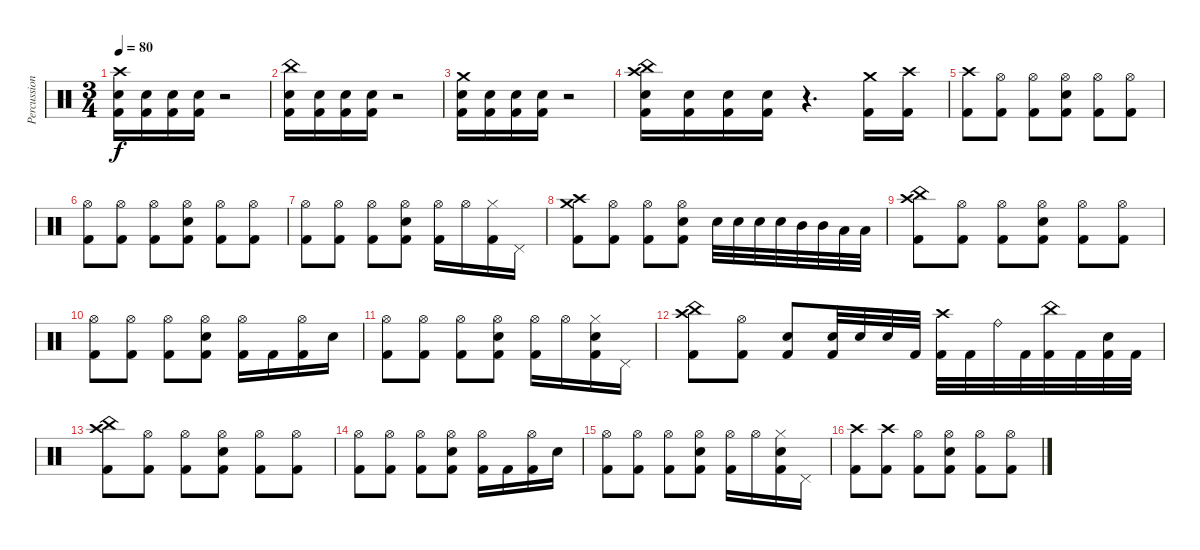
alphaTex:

\track ("Percussion" "Percussion") {instrument percussion}
\staff {score}
\articulation defaults
\ts (3 4)
\tempo 80
\clef neutral
\ks c
("Crash high (hit)" "Electric Snare (hit)" "Kick (hit) 2").16{dy f} ("Electric Snare (hit)" "Kick (hit) 2").16 ("Electric Snare (hit)" "Kick (hit) 2").16 ("Electric Snare (hit)" "Kick (hit) 2").16 r.2 |
("China (hit)" "Electric Snare (hit)" "Kick (hit) 2").16 ("Electric Snare (hit)" "Kick (hit) 2").16 ("Electric Snare (hit)" "Kick (hit) 2").16 ("Electric Snare (hit)" "Kick (hit) 2").16 r.2 |
("Crash medium (hit)" "Electric Snare (hit)" "Kick (hit) 2").16 ("Electric Snare (hit)" "Kick (hit) 2").16 ("Electric Snare (hit)" "Kick (hit) 2").16 ("Electric Snare (hit)" "Kick (hit) 2").16 r.2 |
("Crash high (hit)" "China (hit)" "Electric Snare (hit)" "Kick (hit) 2").16 ("Electric Snare (hit)" "Kick (hit) 2").16 ("Electric Snare (hit)" "Kick (hit) 2").16 ("Electric Snare (hit)" "Kick (hit) 2").16 r.4{d} ("Crash medium (hit)" "Kick (hit) 2").16 ("Crash high (hit)" "Kick (hit) 2").16 |
("Crash high (hit)" "Kick (hit) 2").8 ("Hi-Hat (open)" "Kick (hit) 2").8 ("Hi-Hat (open)" "Kick (hit) 2").8 ("Hi-Hat (open)" "Electric Snare (hit)" "Kick (hit) 2").8 ("Hi-Hat (open)" "Kick (hit) 2").8 ("Hi-Hat (open)" "Kick (hit) 2").8 |
("Hi-Hat (open)" "Kick (hit) 2").8 ("Hi-Hat (open)" "Kick (hit) 2").8 ("Hi-Hat (open)" "Kick (hit) 2").8 ("Hi-Hat (open)" "Electric Snare (hit)" "Kick (hit) 2").8 ("Hi-Hat (open)" "Kick (hit) 2").8 ("Hi-Hat (open)" "Kick (hit) 2").8 |
("Hi-Hat (open)" "Kick (hit) 2").8 ("Hi-Hat (open)" "Kick (hit) 2").8 ("Hi-Hat (open)" "Kick (hit) 2").8 ("Hi-Hat (open)" "Electric Snare (hit)" "Kick (hit) 2").8 ("Hi-Hat (open)" "Kick (hit) 2").16 "Hi-Hat (open)".16 ("Hi-Hat (closed)" "Kick (hit) 2").16 "Pedal Hi-Hat (hit)".16 |
("Crash medium (hit)" "Crash high (hit)" "Kick (hit) 2").8 ("Hi-Hat (open)" "Kick (hit) 2").8 ("Hi-Hat (open)" "Kick (hit) 2").8 ("Hi-Hat (open)" "Electric Snare (hit)" "Kick (hit) 2").8 "Electric Snare (hit)".32 "Electric Snare (hit)".32 "Electric Snare (hit)".32 "Electric Snare (hit)".32 "Mid Tom (hit)".32 "Mid Tom (hit)".32 "Low Tom (hit)".32 "Low Tom (hit)".32 |
("Crash high (hit)" "China (hit)" "Kick (hit) 2").8 ("Hi-Hat (open)" "Kick (hit) 2").8 ("Hi-Hat (open)" "Kick (hit) 2").8 ("Hi-Hat (open)" "Electric Snare (hit)" "Kick (hit) 2").8 ("Hi-Hat (open)" "Kick (hit) 2").8 ("Hi-Hat (open)" "Kick (hit) 2").8 |
("Hi-Hat (open)" "Kick (hit) 2").8 ("Hi-Hat (open)" "Kick (hit) 2").8 ("Hi-Hat (open)" "Kick (hit) 2").8 ("Hi-Hat (open)" "Electric Snare (hit)" "Kick (hit) 2").8 ("Hi-Hat (open)" "Kick (hit) 2").16 "Kick (hit) 2".16 ("Hi-Hat (open)" "Kick (hit) 2").16 "Electric Snare (hit)".16 |
("Hi-Hat (open)" "Kick (hit) 2").8 ("Hi-Hat (open)" "Kick (hit) 2").8 ("Hi-Hat (open)" "Kick (hit) 2").8 ("Hi-Hat (open)" "Electric Snare (hit)" "Kick (hit) 2").8 ("Hi-Hat (open)" "Kick (hit) 2").16 "Hi-Hat (open)".16 ("Hi-Hat (closed)" "Electric Snare (hit)" "Kick (hit) 2").16 "Pedal Hi-Hat (hit)".16 |
("Crash high (hit)" "China (hit)" "Kick (hit) 2").8 ("Hi-Hat (open)" "Kick (hit) 2").8 ("Electric Snare (hit)" "Kick (hit) 2").8 ("Electric Snare (hit)" "Kick (hit) 2").32 "Electric Snare (hit)".32 "Electric Snare (hit)".32 "Kick (hit) 2".32 ("Crash high (hit)" "Kick (hit) 2").32 "Kick (hit) 2".32 "Ride (bell)".32 "Kick (hit) 2".32 ("China (hit)" "Kick (hit) 2").32 "Kick (hit) 2".32 ("Electric Snare (hit)" "Kick (hit) 2").32 "Kick (hit) 2".32 |
("Crash high (hit)" "China (hit)" "Kick (hit) 2").8 ("Hi-Hat (open)" "Kick (hit) 2").8 ("Hi-Hat (open)" "Kick (hit) 2").8 ("Hi-Hat (open)" "Electric Snare (hit)" "Kick (hit) 2").8 ("Hi-Hat (open)" "Kick (hit) 2").8 ("Hi-Hat (open)" "Kick (hit) 2").8 |
("Hi-Hat (open)" "Kick (hit) 2").8 ("Hi-Hat (open)" "Kick (hit) 2").8 ("Hi-Hat (open)" "Kick (hit) 2").8 ("Hi-Hat (open)" "Electric Snare (hit)" "Kick (hit) 2").8 ("Hi-Hat (open)" "Kick (hit) 2").16 "Kick (hit) 2".16 ("Hi-Hat (open)" "Kick (hit) 2").16 "Electric Snare (hit)".16 |
("Hi-Hat (open)" "Kick (hit) 2").8 ("Hi-Hat (open)" "Kick (hit) 2").8 ("Hi-Hat (open)" "Kick (hit) 2").8 ("Hi-Hat (open)" "Electric Snare (hit)" "Kick (hit) 2").8 ("Hi-Hat (open)" "Kick (hit) 2").16 "Hi-Hat (open)".16 ("Hi-Hat (closed)" "Electric Snare (hit)" "Kick (hit) 2").16 "Pedal Hi-Hat (hit)".16 |
("Crash high (hit)" "Kick (hit) 2").8 ("Crash high (hit)" "Kick (hit) 2").8 ("Hi-Hat (open)" "Kick (hit) 2").8 ("Hi-Hat (open)" "Electric Snare (hit)" "Kick (hit) 2").8 ("Hi-Hat (open)" "Kick (hit) 2").8 ("Hi-Hat (open)" "Kick (hit) 2").8
